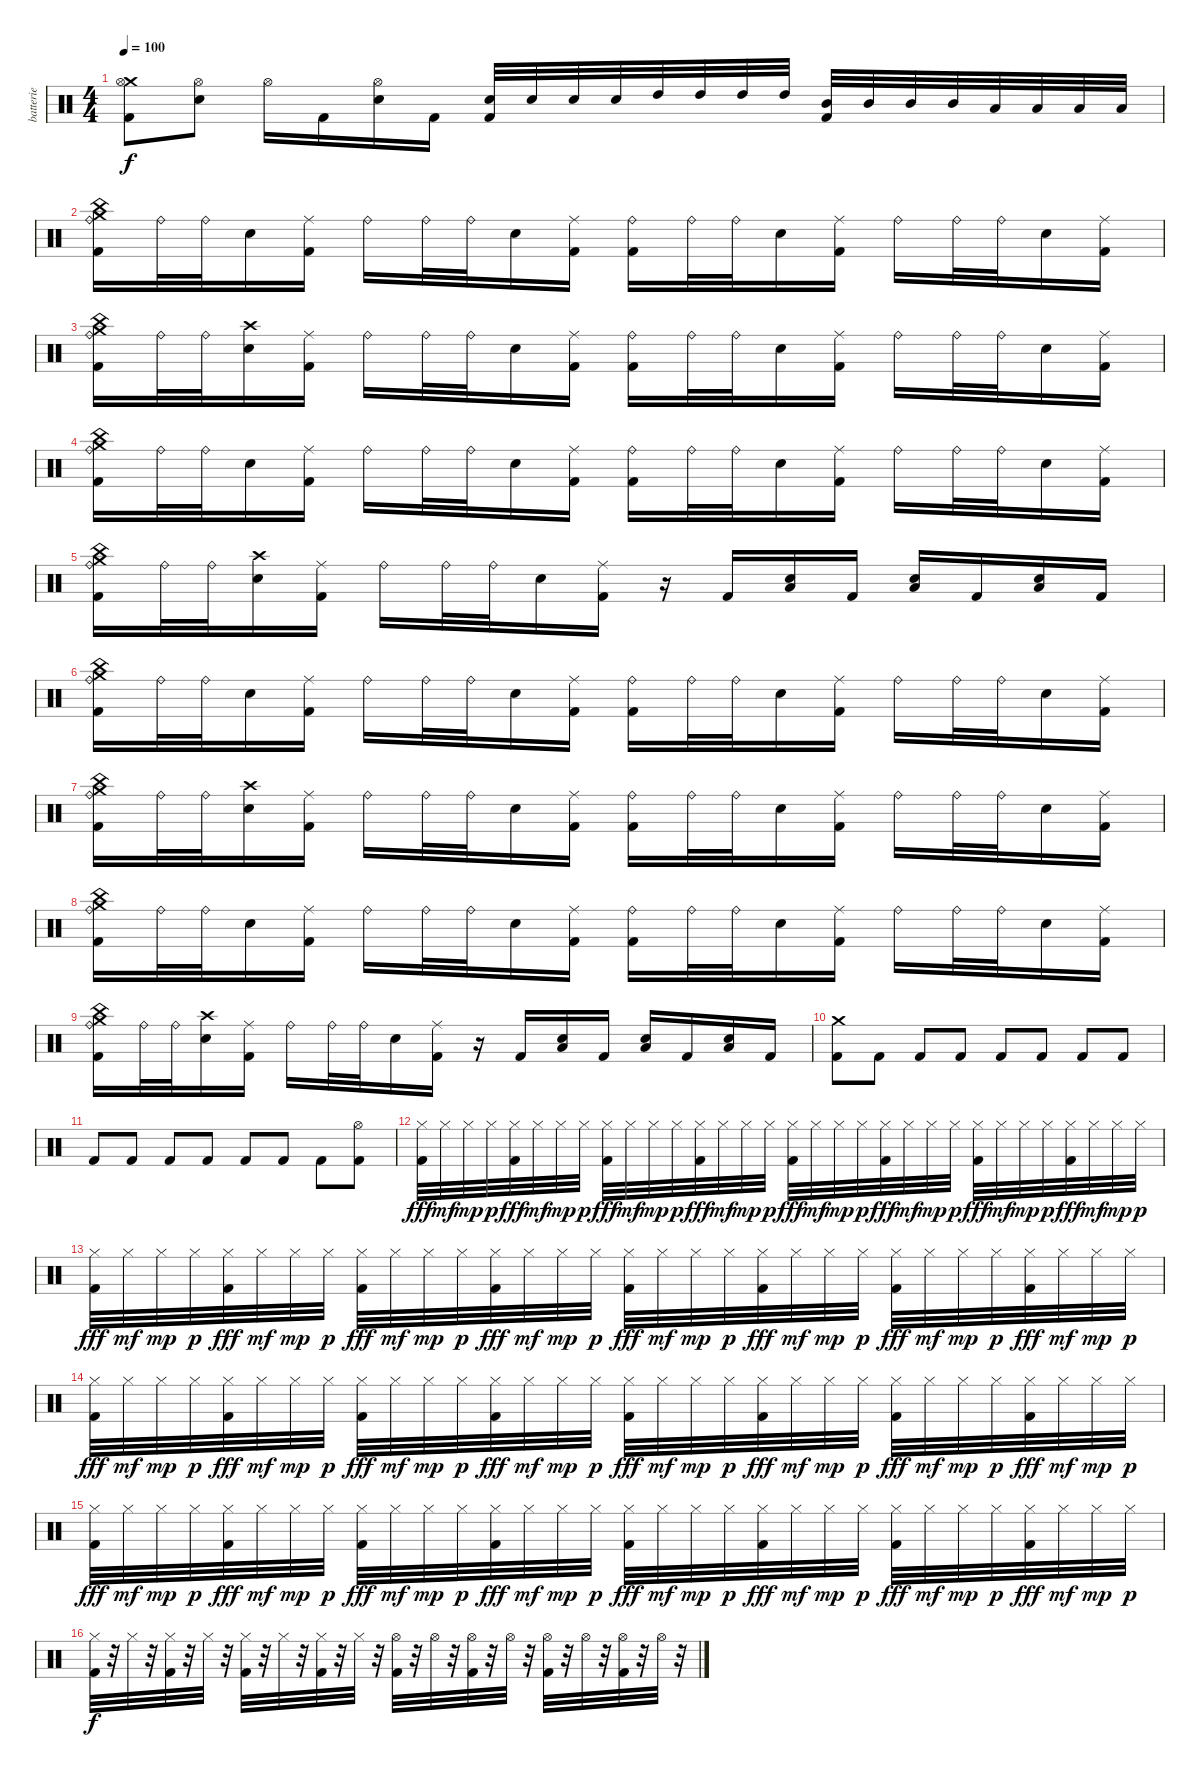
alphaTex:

\track ("batterie" "batterie") {instrument percussion}
\staff {score}
\articulation defaults
\ts (4 4)
\tempo 100
\clef neutral
\ks c
("Crash medium (hit)" "Hi-Hat (open)" "Kick (hit) 2").8{dy f} ("Hi-Hat (open)" "Electric Snare (hit)").8 "Hi-Hat (open)".16 "Kick (hit) 2".16 ("Hi-Hat (open)" "Electric Snare (hit)").16 "Kick (hit) 2".16 ("Electric Snare (hit)" "Kick (hit) 2").32 "Electric Snare (hit)".32 "Electric Snare (hit)".32 "Electric Snare (hit)".32 "High Tom (hit)".32 "High Tom (hit)".32 "High Tom (hit)".32 "High Tom (hit)".32 ("Mid Tom (hit)" "Kick (hit) 2").32 "Mid Tom (hit)".32 "Mid Tom (hit)".32 "Mid Tom (hit)".32 "Low Tom (hit)".32 "Low Tom (hit)".32 "Low Tom (hit)".32 "Low Tom (hit)".32 |
("China (hit)" "Crash medium (hit)" "Ride (bell)" "Kick (hit) 2").16 "Ride (bell)".32 "Ride (bell)".32 "Electric Snare (hit)".16 ("Ride (middle)" "Kick (hit) 2").16 "Ride (bell)".16 "Ride (bell)".32 "Ride (bell)".32 "Electric Snare (hit)".16 ("Ride (middle)" "Kick (hit) 2").16 ("Ride (bell)" "Kick (hit) 2").16 "Ride (bell)".32 "Ride (bell)".32 "Electric Snare (hit)".16 ("Ride (middle)" "Kick (hit) 2").16 "Ride (bell)".16 "Ride (bell)".32 "Ride (bell)".32 "Electric Snare (hit)".16 ("Ride (middle)" "Kick (hit) 2").16 |
("China (hit)" "Crash medium (hit)" "Ride (bell)" "Kick (hit) 2").16 "Ride (bell)".32 "Ride (bell)".32 ("Crash high (hit)" "Electric Snare (hit)").16 ("Ride (middle)" "Kick (hit) 2").16 "Ride (bell)".16 "Ride (bell)".32 "Ride (bell)".32 "Electric Snare (hit)".16 ("Ride (middle)" "Kick (hit) 2").16 ("Ride (bell)" "Kick (hit) 2").16 "Ride (bell)".32 "Ride (bell)".32 "Electric Snare (hit)".16 ("Ride (middle)" "Kick (hit) 2").16 "Ride (bell)".16 "Ride (bell)".32 "Ride (bell)".32 "Electric Snare (hit)".16 ("Ride (middle)" "Kick (hit) 2").16 |
("China (hit)" "Crash medium (hit)" "Ride (bell)" "Kick (hit) 2").16 "Ride (bell)".32 "Ride (bell)".32 "Electric Snare (hit)".16 ("Ride (middle)" "Kick (hit) 2").16 "Ride (bell)".16 "Ride (bell)".32 "Ride (bell)".32 "Electric Snare (hit)".16 ("Ride (middle)" "Kick (hit) 2").16 ("Ride (bell)" "Kick (hit) 2").16 "Ride (bell)".32 "Ride (bell)".32 "Electric Snare (hit)".16 ("Ride (middle)" "Kick (hit) 2").16 "Ride (bell)".16 "Ride (bell)".32 "Ride (bell)".32 "Electric Snare (hit)".16 ("Ride (middle)" "Kick (hit) 2").16 |
("China (hit)" "Crash medium (hit)" "Ride (bell)" "Kick (hit) 2").16 "Ride (bell)".32 "Ride (bell)".32 ("Crash high (hit)" "Electric Snare (hit)").16 ("Ride (middle)" "Kick (hit) 2").16 "Ride (bell)".16 "Ride (bell)".32 "Ride (bell)".32 "Electric Snare (hit)".16 ("Ride (middle)" "Kick (hit) 2").16 r.16 "Kick (hit) 2".16 ("Low Tom (hit)" "Electric Snare (hit)").16 "Kick (hit) 2".16 ("Low Tom (hit)" "Electric Snare (hit)").16 "Kick (hit) 2".16 ("Low Tom (hit)" "Electric Snare (hit)").16 "Kick (hit) 2".16 |
("China (hit)" "Crash medium (hit)" "Ride (bell)" "Kick (hit) 2").16 "Ride (bell)".32 "Ride (bell)".32 "Electric Snare (hit)".16 ("Ride (middle)" "Kick (hit) 2").16 "Ride (bell)".16 "Ride (bell)".32 "Ride (bell)".32 "Electric Snare (hit)".16 ("Ride (middle)" "Kick (hit) 2").16 ("Ride (bell)" "Kick (hit) 2").16 "Ride (bell)".32 "Ride (bell)".32 "Electric Snare (hit)".16 ("Ride (middle)" "Kick (hit) 2").16 "Ride (bell)".16 "Ride (bell)".32 "Ride (bell)".32 "Electric Snare (hit)".16 ("Ride (middle)" "Kick (hit) 2").16 |
("China (hit)" "Crash medium (hit)" "Ride (bell)" "Kick (hit) 2").16 "Ride (bell)".32 "Ride (bell)".32 ("Crash high (hit)" "Electric Snare (hit)").16 ("Ride (middle)" "Kick (hit) 2").16 "Ride (bell)".16 "Ride (bell)".32 "Ride (bell)".32 "Electric Snare (hit)".16 ("Ride (middle)" "Kick (hit) 2").16 ("Ride (bell)" "Kick (hit) 2").16 "Ride (bell)".32 "Ride (bell)".32 "Electric Snare (hit)".16 ("Ride (middle)" "Kick (hit) 2").16 "Ride (bell)".16 "Ride (bell)".32 "Ride (bell)".32 "Electric Snare (hit)".16 ("Ride (middle)" "Kick (hit) 2").16 |
("China (hit)" "Crash medium (hit)" "Ride (bell)" "Kick (hit) 2").16 "Ride (bell)".32 "Ride (bell)".32 "Electric Snare (hit)".16 ("Ride (middle)" "Kick (hit) 2").16 "Ride (bell)".16 "Ride (bell)".32 "Ride (bell)".32 "Electric Snare (hit)".16 ("Ride (middle)" "Kick (hit) 2").16 ("Ride (bell)" "Kick (hit) 2").16 "Ride (bell)".32 "Ride (bell)".32 "Electric Snare (hit)".16 ("Ride (middle)" "Kick (hit) 2").16 "Ride (bell)".16 "Ride (bell)".32 "Ride (bell)".32 "Electric Snare (hit)".16 ("Ride (middle)" "Kick (hit) 2").16 |
("China (hit)" "Crash medium (hit)" "Ride (bell)" "Kick (hit) 2").16 "Ride (bell)".32 "Ride (bell)".32 ("Crash high (hit)" "Electric Snare (hit)").16 ("Ride (middle)" "Kick (hit) 2").16 "Ride (bell)".16 "Ride (bell)".32 "Ride (bell)".32 "Electric Snare (hit)".16 ("Ride (middle)" "Kick (hit) 2").16 r.16 "Kick (hit) 2".16 ("Low Tom (hit)" "Electric Snare (hit)").16 "Kick (hit) 2".16 ("Low Tom (hit)" "Electric Snare (hit)").16 "Kick (hit) 2".16 ("Low Tom (hit)" "Electric Snare (hit)").16 "Kick (hit) 2".16 |
("Crash medium (hit)" "Kick (hit) 2").8 "Kick (hit) 2".8 "Kick (hit) 2".8 "Kick (hit) 2".8 "Kick (hit) 2".8 "Kick (hit) 2".8 "Kick (hit) 2".8 "Kick (hit) 2".8 |
"Kick (hit) 2".8 "Kick (hit) 2".8 "Kick (hit) 2".8 "Kick (hit) 2".8 "Kick (hit) 2".8 "Kick (hit) 2".8 "Kick (hit) 2".8 ("Hi-Hat (open)" "Kick (hit) 2").8 |
("Hi-Hat (closed)" "Kick (hit) 2").32{dy fff} "Hi-Hat (closed)".32{dy mf} "Hi-Hat (closed)".32{dy mp} "Hi-Hat (closed)".32{dy p} ("Hi-Hat (closed)" "Kick (hit) 2").32{dy fff} "Hi-Hat (closed)".32{dy mf} "Hi-Hat (closed)".32{dy mp} "Hi-Hat (closed)".32{dy p} ("Hi-Hat (closed)" "Kick (hit) 2").32{dy fff} "Hi-Hat (closed)".32{dy mf} "Hi-Hat (closed)".32{dy mp} "Hi-Hat (closed)".32{dy p} ("Hi-Hat (closed)" "Kick (hit) 2").32{dy fff} "Hi-Hat (closed)".32{dy mf} "Hi-Hat (closed)".32{dy mp} "Hi-Hat (closed)".32{dy p} ("Hi-Hat (closed)" "Kick (hit) 2").32{dy fff} "Hi-Hat (closed)".32{dy mf} "Hi-Hat (closed)".32{dy mp} "Hi-Hat (closed)".32{dy p} ("Hi-Hat (closed)" "Kick (hit) 2").32{dy fff} "Hi-Hat (closed)".32{dy mf} "Hi-Hat (closed)".32{dy mp} "Hi-Hat (closed)".32{dy p} ("Hi-Hat (closed)" "Kick (hit) 2").32{dy fff} "Hi-Hat (closed)".32{dy mf} "Hi-Hat (closed)".32{dy mp} "Hi-Hat (closed)".32{dy p} ("Hi-Hat (closed)" "Kick (hit) 2").32{dy fff} "Hi-Hat (closed)".32{dy mf} "Hi-Hat (closed)".32{dy mp} "Hi-Hat (closed)".32{dy p} |
("Hi-Hat (closed)" "Kick (hit) 2").32{dy fff} "Hi-Hat (closed)".32{dy mf} "Hi-Hat (closed)".32{dy mp} "Hi-Hat (closed)".32{dy p} ("Hi-Hat (closed)" "Kick (hit) 2").32{dy fff} "Hi-Hat (closed)".32{dy mf} "Hi-Hat (closed)".32{dy mp} "Hi-Hat (closed)".32{dy p} ("Hi-Hat (closed)" "Kick (hit) 2").32{dy fff} "Hi-Hat (closed)".32{dy mf} "Hi-Hat (closed)".32{dy mp} "Hi-Hat (closed)".32{dy p} ("Hi-Hat (closed)" "Kick (hit) 2").32{dy fff} "Hi-Hat (closed)".32{dy mf} "Hi-Hat (closed)".32{dy mp} "Hi-Hat (closed)".32{dy p} ("Hi-Hat (closed)" "Kick (hit) 2").32{dy fff} "Hi-Hat (closed)".32{dy mf} "Hi-Hat (closed)".32{dy mp} "Hi-Hat (closed)".32{dy p} ("Hi-Hat (closed)" "Kick (hit) 2").32{dy fff} "Hi-Hat (closed)".32{dy mf} "Hi-Hat (closed)".32{dy mp} "Hi-Hat (closed)".32{dy p} ("Hi-Hat (closed)" "Kick (hit) 2").32{dy fff} "Hi-Hat (closed)".32{dy mf} "Hi-Hat (closed)".32{dy mp} "Hi-Hat (closed)".32{dy p} ("Hi-Hat (closed)" "Kick (hit) 2").32{dy fff} "Hi-Hat (closed)".32{dy mf} "Hi-Hat (closed)".32{dy mp} "Hi-Hat (closed)".32{dy p} |
("Hi-Hat (closed)" "Kick (hit) 2").32{dy fff} "Hi-Hat (closed)".32{dy mf} "Hi-Hat (closed)".32{dy mp} "Hi-Hat (closed)".32{dy p} ("Hi-Hat (closed)" "Kick (hit) 2").32{dy fff} "Hi-Hat (closed)".32{dy mf} "Hi-Hat (closed)".32{dy mp} "Hi-Hat (closed)".32{dy p} ("Hi-Hat (closed)" "Kick (hit) 2").32{dy fff} "Hi-Hat (closed)".32{dy mf} "Hi-Hat (closed)".32{dy mp} "Hi-Hat (closed)".32{dy p} ("Hi-Hat (closed)" "Kick (hit) 2").32{dy fff} "Hi-Hat (closed)".32{dy mf} "Hi-Hat (closed)".32{dy mp} "Hi-Hat (closed)".32{dy p} ("Hi-Hat (closed)" "Kick (hit) 2").32{dy fff} "Hi-Hat (closed)".32{dy mf} "Hi-Hat (closed)".32{dy mp} "Hi-Hat (closed)".32{dy p} ("Hi-Hat (closed)" "Kick (hit) 2").32{dy fff} "Hi-Hat (closed)".32{dy mf} "Hi-Hat (closed)".32{dy mp} "Hi-Hat (closed)".32{dy p} ("Hi-Hat (closed)" "Kick (hit) 2").32{dy fff} "Hi-Hat (closed)".32{dy mf} "Hi-Hat (closed)".32{dy mp} "Hi-Hat (closed)".32{dy p} ("Hi-Hat (closed)" "Kick (hit) 2").32{dy fff} "Hi-Hat (closed)".32{dy mf} "Hi-Hat (closed)".32{dy mp} "Hi-Hat (closed)".32{dy p} |
("Hi-Hat (closed)" "Kick (hit) 2").32{dy fff} "Hi-Hat (closed)".32{dy mf} "Hi-Hat (closed)".32{dy mp} "Hi-Hat (closed)".32{dy p} ("Hi-Hat (closed)" "Kick (hit) 2").32{dy fff} "Hi-Hat (closed)".32{dy mf} "Hi-Hat (closed)".32{dy mp} "Hi-Hat (closed)".32{dy p} ("Hi-Hat (closed)" "Kick (hit) 2").32{dy fff} "Hi-Hat (closed)".32{dy mf} "Hi-Hat (closed)".32{dy mp} "Hi-Hat (closed)".32{dy p} ("Hi-Hat (closed)" "Kick (hit) 2").32{dy fff} "Hi-Hat (closed)".32{dy mf} "Hi-Hat (closed)".32{dy mp} "Hi-Hat (closed)".32{dy p} ("Hi-Hat (closed)" "Kick (hit) 2").32{dy fff} "Hi-Hat (closed)".32{dy mf} "Hi-Hat (closed)".32{dy mp} "Hi-Hat (closed)".32{dy p} ("Hi-Hat (closed)" "Kick (hit) 2").32{dy fff} "Hi-Hat (closed)".32{dy mf} "Hi-Hat (closed)".32{dy mp} "Hi-Hat (closed)".32{dy p} ("Hi-Hat (closed)" "Kick (hit) 2").32{dy fff} "Hi-Hat (closed)".32{dy mf} "Hi-Hat (closed)".32{dy mp} "Hi-Hat (closed)".32{dy p} ("Hi-Hat (closed)" "Kick (hit) 2").32{dy fff} "Hi-Hat (closed)".32{dy mf} "Hi-Hat (closed)".32{dy mp} "Hi-Hat (closed)".32{dy p} |
("Hi-Hat (closed)" "Kick (hit) 2").32{dy f} r.32 "Hi-Hat (closed)".32 r.32 ("Hi-Hat (closed)" "Kick (hit) 2").32 r.32 "Hi-Hat (closed)".32 r.32 ("Hi-Hat (closed)" "Kick (hit) 2").32 r.32 "Hi-Hat (closed)".32 r.32 ("Hi-Hat (closed)" "Kick (hit) 2").32 r.32 "Hi-Hat (closed)".32 r.32 ("Hi-Hat (open)" "Kick (hit) 2").32 r.32 "Hi-Hat (open)".32 r.32 ("Hi-Hat (open)" "Kick (hit) 2").32 r.32 "Hi-Hat (open)".32 r.32 ("Hi-Hat (open)" "Kick (hit) 2").32 r.32 "Hi-Hat (open)".32 r.32 ("Hi-Hat (open)" "Kick (hit) 2").32 r.32 "Hi-Hat (open)".32 r.32
